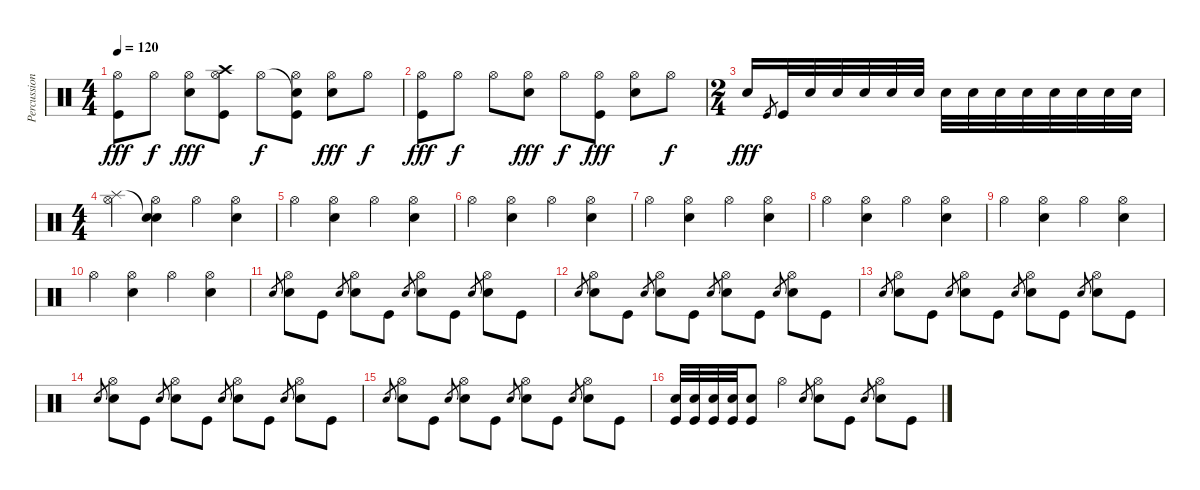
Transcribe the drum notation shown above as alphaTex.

\track ("Percussion" "Percussion") {instrument percussion}
\staff {score}
\articulation defaults
\ts (4 4)
\tempo 120
\clef neutral
\ks c
("Hi-Hat (open)" "Kick (hit)").8{dy fff} "Hi-Hat (open)".8{dy f} ("Hi-Hat (open)" "Snare (hit) 2").8{dy fff} ("Crash high (hit)" "Hi-Hat (open)" "Kick (hit)").8 "Hi-Hat (open)".8{dy f} ("Snare (hit)"{t} "Hi-Hat (open)" "Kick (hit)").8 ("Hi-Hat (open)" "Snare (hit) 2").8{dy fff} "Hi-Hat (open)".8{dy f} |
("Hi-Hat (open)" "Kick (hit)").8{dy fff} "Hi-Hat (open)".8{dy f} "Hi-Hat (open)".8 ("Hi-Hat (open)" "Snare (hit) 2").8{dy fff} "Hi-Hat (open)".8{dy f} ("Hi-Hat (open)" "Kick (hit)").8{dy fff} ("Hi-Hat (open)" "Snare (hit) 2").8 "Hi-Hat (open)".8{dy f} |
\ts (2 4)
"Snare (hit) 2".16{dy fff} "Kick (hit)".8{gr} "Kick (hit)".32 "Snare (hit) 2".32 "Snare (hit) 2".32 "Snare (hit) 2".32 "Snare (hit) 2".32 "Snare (hit) 2".32 "Snare (hit) 2".32 "Snare (hit) 2".32 "Snare (hit) 2".32 "Snare (hit) 2".32 "Snare (hit) 2".32 "Snare (hit) 2".32 "Snare (hit) 2".32 "Snare (hit) 2".32 |
\ts (4 4)
("Splash (hit)" "Hi-Hat (open)").4 ("Snare (hit)"{t} "Hi-Hat (open)" "Snare (hit) 2").4 "Hi-Hat (open)".4 ("Hi-Hat (open)" "Snare (hit) 2").4 |
"Hi-Hat (open)".4 ("Hi-Hat (open)" "Snare (hit) 2").4 "Hi-Hat (open)".4 ("Hi-Hat (open)" "Snare (hit) 2").4 |
"Hi-Hat (open)".4 ("Hi-Hat (open)" "Snare (hit) 2").4 "Hi-Hat (open)".4 ("Hi-Hat (open)" "Snare (hit) 2").4 |
"Hi-Hat (open)".4 ("Hi-Hat (open)" "Snare (hit) 2").4 "Hi-Hat (open)".4 ("Hi-Hat (open)" "Snare (hit) 2").4 |
"Hi-Hat (open)".4 ("Hi-Hat (open)" "Snare (hit) 2").4 "Hi-Hat (open)".4 ("Hi-Hat (open)" "Snare (hit) 2").4 |
"Hi-Hat (open)".4 ("Hi-Hat (open)" "Snare (hit) 2").4 "Hi-Hat (open)".4 ("Hi-Hat (open)" "Snare (hit) 2").4 |
"Hi-Hat (open)".4 ("Hi-Hat (open)" "Snare (hit) 2").4 "Hi-Hat (open)".4 ("Hi-Hat (open)" "Snare (hit) 2").4 |
"Snare (hit) 2".8{gr} ("Hi-Hat (open)" "Snare (hit) 2").8 "Kick (hit)".8 "Snare (hit) 2".8{gr} ("Hi-Hat (open)" "Snare (hit) 2").8 "Kick (hit)".8 "Snare (hit) 2".8{gr} ("Hi-Hat (open)" "Snare (hit) 2").8 "Kick (hit)".8 "Snare (hit) 2".8{gr} ("Hi-Hat (open)" "Snare (hit) 2").8 "Kick (hit)".8 |
"Snare (hit) 2".8{gr} ("Hi-Hat (open)" "Snare (hit) 2").8 "Kick (hit)".8 "Snare (hit) 2".8{gr} ("Hi-Hat (open)" "Snare (hit) 2").8 "Kick (hit)".8 "Snare (hit) 2".8{gr} ("Hi-Hat (open)" "Snare (hit) 2").8 "Kick (hit)".8 "Snare (hit) 2".8{gr} ("Hi-Hat (open)" "Snare (hit) 2").8 "Kick (hit)".8 |
"Snare (hit) 2".8{gr} ("Hi-Hat (open)" "Snare (hit) 2").8 "Kick (hit)".8 "Snare (hit) 2".8{gr} ("Hi-Hat (open)" "Snare (hit) 2").8 "Kick (hit)".8 "Snare (hit) 2".8{gr} ("Hi-Hat (open)" "Snare (hit) 2").8 "Kick (hit)".8 "Snare (hit) 2".8{gr} ("Hi-Hat (open)" "Snare (hit) 2").8 "Kick (hit)".8 |
"Snare (hit) 2".8{gr} ("Hi-Hat (open)" "Snare (hit) 2").8 "Kick (hit)".8 "Snare (hit) 2".8{gr} ("Hi-Hat (open)" "Snare (hit) 2").8 "Kick (hit)".8 "Snare (hit) 2".8{gr} ("Hi-Hat (open)" "Snare (hit) 2").8 "Kick (hit)".8 "Snare (hit) 2".8{gr} ("Hi-Hat (open)" "Snare (hit) 2").8 "Kick (hit)".8 |
"Snare (hit) 2".8{gr} ("Hi-Hat (open)" "Snare (hit) 2").8 "Kick (hit)".8 "Snare (hit) 2".8{gr} ("Hi-Hat (open)" "Snare (hit) 2").8 "Kick (hit)".8 "Snare (hit) 2".8{gr} ("Hi-Hat (open)" "Snare (hit) 2").8 "Kick (hit)".8 "Snare (hit) 2".8{gr} ("Hi-Hat (open)" "Snare (hit) 2").8 "Kick (hit)".8 |
("Kick (hit)" "Snare (hit) 2").32 ("Kick (hit)" "Snare (hit) 2").32 ("Kick (hit)" "Snare (hit) 2").32 ("Kick (hit)" "Snare (hit) 2").32 ("Kick (hit)" "Snare (hit) 2").8 "Hi-Hat (open)".4 "Snare (hit) 2".8{gr} ("Hi-Hat (open)" "Snare (hit) 2").8 "Kick (hit)".8 "Snare (hit) 2".8{gr} ("Hi-Hat (open)" "Snare (hit) 2").8 "Kick (hit)".8
